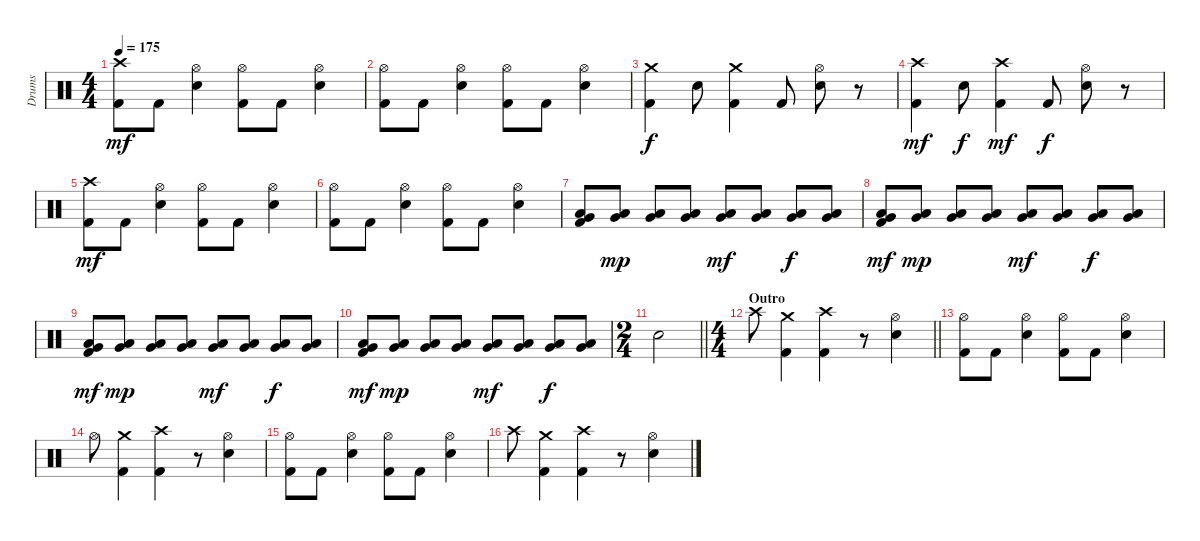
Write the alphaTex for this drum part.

\track ("Drums" "Drums") {instrument percussion}
\staff {score}
\articulation defaults
\ts (4 4)
\tempo 175
\clef neutral
\ks c
("Crash high (hit)" "Kick (hit) 2").8{dy mf} "Kick (hit) 2".8 ("Hi-Hat (open)" "Electric Snare (hit)").4 ("Hi-Hat (open)" "Kick (hit) 2").8 "Kick (hit) 2".8 ("Hi-Hat (open)" "Electric Snare (hit)").4 |
("Hi-Hat (open)" "Kick (hit) 2").8 "Kick (hit) 2".8 ("Hi-Hat (open)" "Electric Snare (hit)").4 ("Hi-Hat (open)" "Kick (hit) 2").8 "Kick (hit) 2".8 ("Hi-Hat (open)" "Electric Snare (hit)").4 |
("Crash medium (hit)" "Kick (hit) 2").4{dy f} "Electric Snare (hit)".8 ("Crash medium (hit)" "Kick (hit) 2").4 "Kick (hit) 2".8 ("Hi-Hat (open)" "Electric Snare (hit)").8 r.8 |
("Crash high (hit)" "Kick (hit) 2").4{dy mf} "Electric Snare (hit)".8{dy f} ("Crash high (hit)" "Kick (hit) 2").4{dy mf} "Kick (hit) 2".8{dy f} ("Hi-Hat (open)" "Electric Snare (hit)").8 r.8 |
("Crash high (hit)" "Kick (hit) 2").8{dy mf} "Kick (hit) 2".8 ("Hi-Hat (open)" "Electric Snare (hit)").4 ("Hi-Hat (open)" "Kick (hit) 2").8 "Kick (hit) 2".8 ("Hi-Hat (open)" "Electric Snare (hit)").4 |
("Hi-Hat (open)" "Kick (hit) 2").8 "Kick (hit) 2".8 ("Hi-Hat (open)" "Electric Snare (hit)").4 ("Hi-Hat (open)" "Kick (hit) 2").8 "Kick (hit) 2".8 ("Hi-Hat (open)" "Electric Snare (hit)").4 |
("Low Tom (hit)" "Very Low Tom (hit)" "Kick (hit) 2").8 ("Low Tom (hit)" "Very Low Tom (hit)").8{dy mp} ("Low Tom (hit)" "Very Low Tom (hit)").8 ("Low Tom (hit)" "Very Low Tom (hit)").8 ("Low Tom (hit)" "Very Low Tom (hit)").8{dy mf} ("Low Tom (hit)" "Very Low Tom (hit)").8 ("Low Tom (hit)" "Very Low Tom (hit)").8{dy f} ("Low Tom (hit)" "Very Low Tom (hit)").8 |
("Low Tom (hit)" "Very Low Tom (hit)" "Kick (hit) 2").8{dy mf} ("Low Tom (hit)" "Very Low Tom (hit)").8{dy mp} ("Low Tom (hit)" "Very Low Tom (hit)").8 ("Low Tom (hit)" "Very Low Tom (hit)").8 ("Low Tom (hit)" "Very Low Tom (hit)").8{dy mf} ("Low Tom (hit)" "Very Low Tom (hit)").8 ("Low Tom (hit)" "Very Low Tom (hit)").8{dy f} ("Low Tom (hit)" "Very Low Tom (hit)").8 |
("Low Tom (hit)" "Very Low Tom (hit)" "Kick (hit) 2").8{dy mf} ("Low Tom (hit)" "Very Low Tom (hit)").8{dy mp} ("Low Tom (hit)" "Very Low Tom (hit)").8 ("Low Tom (hit)" "Very Low Tom (hit)").8 ("Low Tom (hit)" "Very Low Tom (hit)").8{dy mf} ("Low Tom (hit)" "Very Low Tom (hit)").8 ("Low Tom (hit)" "Very Low Tom (hit)").8{dy f} ("Low Tom (hit)" "Very Low Tom (hit)").8 |
("Low Tom (hit)" "Very Low Tom (hit)" "Kick (hit) 2").8{dy mf} ("Low Tom (hit)" "Very Low Tom (hit)").8{dy mp} ("Low Tom (hit)" "Very Low Tom (hit)").8 ("Low Tom (hit)" "Very Low Tom (hit)").8 ("Low Tom (hit)" "Very Low Tom (hit)").8{dy mf} ("Low Tom (hit)" "Very Low Tom (hit)").8 ("Low Tom (hit)" "Very Low Tom (hit)").8{dy f} ("Low Tom (hit)" "Very Low Tom (hit)").8 |
\ts (2 4)
\barLineRight lightlight "Electric Snare (hit)".2
|
\ts (4 4)
\section ("" "Outro")
\barLineRight lightlight "Crash high (hit)".8
("Crash medium (hit)" "Kick (hit) 2").4 ("Crash high (hit)" "Kick (hit) 2").4 r.8 ("Hi-Hat (open)" "Electric Snare (hit)").4 |
("Hi-Hat (open)" "Kick (hit) 2").8 "Kick (hit) 2".8 ("Hi-Hat (open)" "Electric Snare (hit)").4 ("Hi-Hat (open)" "Kick (hit) 2").8 "Kick (hit) 2".8 ("Hi-Hat (open)" "Electric Snare (hit)").4 |
"Hi-Hat (open)".8 ("Crash medium (hit)" "Kick (hit) 2").4 ("Crash high (hit)" "Kick (hit) 2").4 r.8 ("Hi-Hat (open)" "Electric Snare (hit)").4 |
("Hi-Hat (open)" "Kick (hit) 2").8 "Kick (hit) 2".8 ("Hi-Hat (open)" "Electric Snare (hit)").4 ("Hi-Hat (open)" "Kick (hit) 2").8 "Kick (hit) 2".8 ("Hi-Hat (open)" "Electric Snare (hit)").4 |
"Crash high (hit)".8 ("Crash medium (hit)" "Kick (hit) 2").4 ("Crash high (hit)" "Kick (hit) 2").4 r.8 ("Hi-Hat (open)" "Electric Snare (hit)").4
